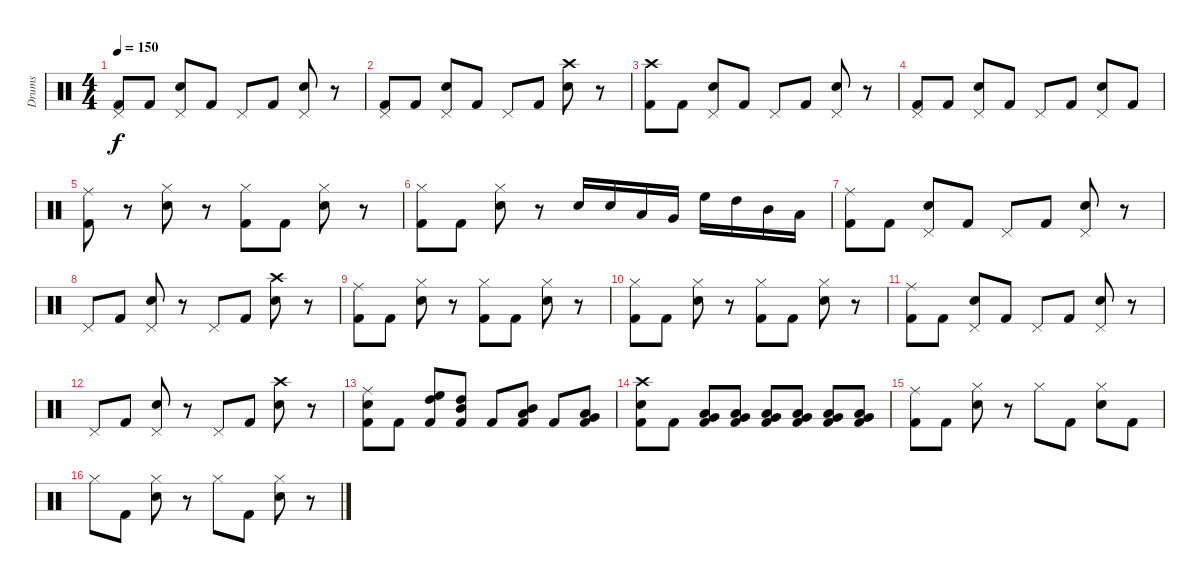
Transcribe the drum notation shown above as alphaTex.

\track ("Drums" "Drums") {instrument percussion}
\staff {score}
\articulation defaults
\ts (4 4)
\tempo 150
\clef neutral
\ks c
("Pedal Hi-Hat (hit)" "Kick (hit) 2").8{dy f} "Kick (hit) 2".8 ("Pedal Hi-Hat (hit)" "Electric Snare (hit)").8 "Kick (hit) 2".8 "Pedal Hi-Hat (hit)".8 "Kick (hit) 2".8 ("Pedal Hi-Hat (hit)" "Electric Snare (hit)").8 r.8 |
("Pedal Hi-Hat (hit)" "Kick (hit) 2").8 "Kick (hit) 2".8 ("Pedal Hi-Hat (hit)" "Electric Snare (hit)").8 "Kick (hit) 2".8 "Pedal Hi-Hat (hit)".8 "Kick (hit) 2".8 ("Crash high (hit)" "Electric Snare (hit)").8 r.8 |
("Crash high (hit)" "Kick (hit) 2").8 "Kick (hit) 2".8 ("Pedal Hi-Hat (hit)" "Electric Snare (hit)").8 "Kick (hit) 2".8 "Pedal Hi-Hat (hit)".8 "Kick (hit) 2".8 ("Pedal Hi-Hat (hit)" "Electric Snare (hit)").8 r.8 |
("Pedal Hi-Hat (hit)" "Kick (hit) 2").8 "Kick (hit) 2".8 ("Pedal Hi-Hat (hit)" "Electric Snare (hit)").8 "Kick (hit) 2".8 "Pedal Hi-Hat (hit)".8 "Kick (hit) 2".8 ("Pedal Hi-Hat (hit)" "Electric Snare (hit)").8 "Kick (hit) 2".8 |
("Ride (middle)" "Kick (hit) 2").8 r.8 ("Hi-Hat (closed)" "Electric Snare (hit)").8 r.8 ("Hi-Hat (closed)" "Kick (hit) 2").8 "Kick (hit) 2".8 ("Hi-Hat (closed)" "Electric Snare (hit)").8 r.8 |
("Hi-Hat (closed)" "Kick (hit) 2").8 "Kick (hit) 2".8 ("Hi-Hat (closed)" "Electric Snare (hit)").8 r.8 "Electric Snare (hit)".16 "Electric Snare (hit)".16 "Low Tom (hit)".16 "Very Low Tom (hit)".16 "High Floor Tom (hit)".16 "High Tom (hit)".16 "Mid Tom (hit)".16 "Low Tom (hit)".16 |
("Ride (middle)" "Kick (hit) 2").8 "Kick (hit) 2".8 ("Pedal Hi-Hat (hit)" "Electric Snare (hit)").8 "Kick (hit) 2".8 "Pedal Hi-Hat (hit)".8 "Kick (hit) 2".8 ("Pedal Hi-Hat (hit)" "Electric Snare (hit)").8 r.8 |
"Pedal Hi-Hat (hit)".8 "Kick (hit) 2".8 ("Pedal Hi-Hat (hit)" "Electric Snare (hit)").8 r.8 "Pedal Hi-Hat (hit)".8 "Kick (hit) 2".8 ("Crash high (hit)" "Electric Snare (hit)").8 r.8 |
("Ride (middle)" "Kick (hit) 2").8 "Kick (hit) 2".8 ("Hi-Hat (closed)" "Electric Snare (hit)").8 r.8 ("Hi-Hat (closed)" "Kick (hit) 2").8 "Kick (hit) 2".8 ("Hi-Hat (closed)" "Electric Snare (hit)").8 r.8 |
("Hi-Hat (closed)" "Kick (hit) 2").8 "Kick (hit) 2".8 ("Hi-Hat (closed)" "Electric Snare (hit)").8 r.8 ("Hi-Hat (closed)" "Kick (hit) 2").8 "Kick (hit) 2".8 ("Hi-Hat (closed)" "Electric Snare (hit)").8 r.8 |
("Ride (middle)" "Kick (hit) 2").8 "Kick (hit) 2".8 ("Pedal Hi-Hat (hit)" "Electric Snare (hit)").8 "Kick (hit) 2".8 "Pedal Hi-Hat (hit)".8 "Kick (hit) 2".8 ("Pedal Hi-Hat (hit)" "Electric Snare (hit)").8 r.8 |
"Pedal Hi-Hat (hit)".8 "Kick (hit) 2".8 ("Pedal Hi-Hat (hit)" "Electric Snare (hit)").8 r.8 "Pedal Hi-Hat (hit)".8 "Kick (hit) 2".8 ("Crash high (hit)" "Electric Snare (hit)").8 r.8 |
("Ride (middle)" "Electric Snare (hit)" "Kick (hit) 2").8 "Kick (hit) 2".8 ("High Floor Tom (hit)" "High Tom (hit)" "Kick (hit) 2").8 ("Mid Tom (hit)" "High Tom (hit)" "Kick (hit) 2").8 "Kick (hit) 2".8 ("Mid Tom (hit)" "Low Tom (hit)" "Kick (hit) 2").8 "Kick (hit) 2".8 ("Very Low Tom (hit)" "Low Tom (hit)" "Kick (hit) 2").8 |
("Crash high (hit)" "Electric Snare (hit)" "Kick (hit) 2").8 "Kick (hit) 2".8 ("Very Low Tom (hit)" "Low Floor Tom (hit)" "Kick (hit) 2").8 ("Very Low Tom (hit)" "Low Floor Tom (hit)" "Kick (hit) 2").8 ("Very Low Tom (hit)" "Low Floor Tom (hit)" "Kick (hit) 2").8 ("Very Low Tom (hit)" "Low Floor Tom (hit)" "Kick (hit) 2").8 ("Very Low Tom (hit)" "Low Floor Tom (hit)" "Kick (hit) 2").8 ("Very Low Tom (hit)" "Low Floor Tom (hit)" "Kick (hit) 2").8 |
("Ride (middle)" "Kick (hit) 2").8 "Kick (hit) 2".8 ("Hi-Hat (closed)" "Electric Snare (hit)").8 r.8 "Hi-Hat (closed)".8 "Kick (hit) 2".8 ("Hi-Hat (closed)" "Electric Snare (hit)").8 "Kick (hit) 2".8 |
"Hi-Hat (closed)".8 "Kick (hit) 2".8 ("Hi-Hat (closed)" "Electric Snare (hit)").8 r.8 "Hi-Hat (closed)".8 "Kick (hit) 2".8 ("Hi-Hat (closed)" "Electric Snare (hit)").8 r.8
